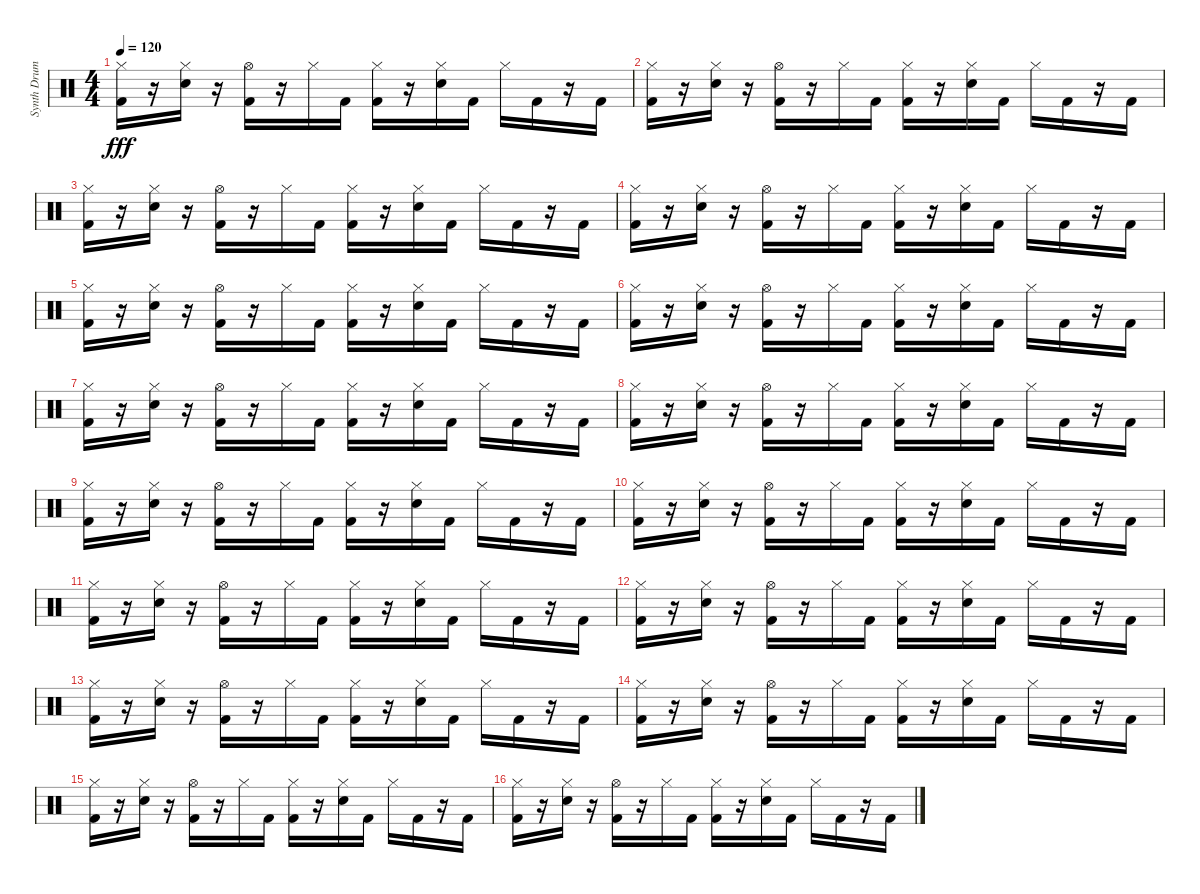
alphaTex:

\track ("Synth Drums" "Synth Drum") {instrument percussion}
\staff {score}
\articulation defaults
\ts (4 4)
\tempo 120
\clef neutral
\ks c
("Hi-Hat (closed)" "Kick (hit) 2").16{dy fff} r.16 ("Hi-Hat (closed)" "Snare (hit) 2").16 r.16 ("Hi-Hat (open)" "Kick (hit) 2").16 r.16 "Hi-Hat (closed)".16 "Kick (hit) 2".16 ("Hi-Hat (closed)" "Kick (hit) 2").16 r.16 ("Hi-Hat (closed)" "Snare (hit) 2").16 "Kick (hit) 2".16 "Hi-Hat (closed)".16 "Kick (hit) 2".16 r.16 "Kick (hit) 2".16 |
("Hi-Hat (closed)" "Kick (hit) 2").16 r.16 ("Hi-Hat (closed)" "Snare (hit) 2").16 r.16 ("Hi-Hat (open)" "Kick (hit) 2").16 r.16 "Hi-Hat (closed)".16 "Kick (hit) 2".16 ("Hi-Hat (closed)" "Kick (hit) 2").16 r.16 ("Hi-Hat (closed)" "Snare (hit) 2").16 "Kick (hit) 2".16 "Hi-Hat (closed)".16 "Kick (hit) 2".16 r.16 "Kick (hit) 2".16 |
("Hi-Hat (closed)" "Kick (hit) 2").16 r.16 ("Hi-Hat (closed)" "Snare (hit) 2").16 r.16 ("Hi-Hat (open)" "Kick (hit) 2").16 r.16 "Hi-Hat (closed)".16 "Kick (hit) 2".16 ("Hi-Hat (closed)" "Kick (hit) 2").16 r.16 ("Hi-Hat (closed)" "Snare (hit) 2").16 "Kick (hit) 2".16 "Hi-Hat (closed)".16 "Kick (hit) 2".16 r.16 "Kick (hit) 2".16 |
("Hi-Hat (closed)" "Kick (hit) 2").16 r.16 ("Hi-Hat (closed)" "Snare (hit) 2").16 r.16 ("Hi-Hat (open)" "Kick (hit) 2").16 r.16 "Hi-Hat (closed)".16 "Kick (hit) 2".16 ("Hi-Hat (closed)" "Kick (hit) 2").16 r.16 ("Hi-Hat (closed)" "Snare (hit) 2").16 "Kick (hit) 2".16 "Hi-Hat (closed)".16 "Kick (hit) 2".16 r.16 "Kick (hit) 2".16 |
("Hi-Hat (closed)" "Kick (hit) 2").16 r.16 ("Hi-Hat (closed)" "Snare (hit) 2").16 r.16 ("Hi-Hat (open)" "Kick (hit) 2").16 r.16 "Hi-Hat (closed)".16 "Kick (hit) 2".16 ("Hi-Hat (closed)" "Kick (hit) 2").16 r.16 ("Hi-Hat (closed)" "Snare (hit) 2").16 "Kick (hit) 2".16 "Hi-Hat (closed)".16 "Kick (hit) 2".16 r.16 "Kick (hit) 2".16 |
("Hi-Hat (closed)" "Kick (hit) 2").16 r.16 ("Hi-Hat (closed)" "Snare (hit) 2").16 r.16 ("Hi-Hat (open)" "Kick (hit) 2").16 r.16 "Hi-Hat (closed)".16 "Kick (hit) 2".16 ("Hi-Hat (closed)" "Kick (hit) 2").16 r.16 ("Hi-Hat (closed)" "Snare (hit) 2").16 "Kick (hit) 2".16 "Hi-Hat (closed)".16 "Kick (hit) 2".16 r.16 "Kick (hit) 2".16 |
("Hi-Hat (closed)" "Kick (hit) 2").16 r.16 ("Hi-Hat (closed)" "Snare (hit) 2").16 r.16 ("Hi-Hat (open)" "Kick (hit) 2").16 r.16 "Hi-Hat (closed)".16 "Kick (hit) 2".16 ("Hi-Hat (closed)" "Kick (hit) 2").16 r.16 ("Hi-Hat (closed)" "Snare (hit) 2").16 "Kick (hit) 2".16 "Hi-Hat (closed)".16 "Kick (hit) 2".16 r.16 "Kick (hit) 2".16 |
("Hi-Hat (closed)" "Kick (hit) 2").16 r.16 ("Hi-Hat (closed)" "Snare (hit) 2").16 r.16 ("Hi-Hat (open)" "Kick (hit) 2").16 r.16 "Hi-Hat (closed)".16 "Kick (hit) 2".16 ("Hi-Hat (closed)" "Kick (hit) 2").16 r.16 ("Hi-Hat (closed)" "Snare (hit) 2").16 "Kick (hit) 2".16 "Hi-Hat (closed)".16 "Kick (hit) 2".16 r.16 "Kick (hit) 2".16 |
("Hi-Hat (closed)" "Kick (hit) 2").16 r.16 ("Hi-Hat (closed)" "Snare (hit) 2").16 r.16 ("Hi-Hat (open)" "Kick (hit) 2").16 r.16 "Hi-Hat (closed)".16 "Kick (hit) 2".16 ("Hi-Hat (closed)" "Kick (hit) 2").16 r.16 ("Hi-Hat (closed)" "Snare (hit) 2").16 "Kick (hit) 2".16 "Hi-Hat (closed)".16 "Kick (hit) 2".16 r.16 "Kick (hit) 2".16 |
("Hi-Hat (closed)" "Kick (hit) 2").16 r.16 ("Hi-Hat (closed)" "Snare (hit) 2").16 r.16 ("Hi-Hat (open)" "Kick (hit) 2").16 r.16 "Hi-Hat (closed)".16 "Kick (hit) 2".16 ("Hi-Hat (closed)" "Kick (hit) 2").16 r.16 ("Hi-Hat (closed)" "Snare (hit) 2").16 "Kick (hit) 2".16 "Hi-Hat (closed)".16 "Kick (hit) 2".16 r.16 "Kick (hit) 2".16 |
("Hi-Hat (closed)" "Kick (hit) 2").16 r.16 ("Hi-Hat (closed)" "Snare (hit) 2").16 r.16 ("Hi-Hat (open)" "Kick (hit) 2").16 r.16 "Hi-Hat (closed)".16 "Kick (hit) 2".16 ("Hi-Hat (closed)" "Kick (hit) 2").16 r.16 ("Hi-Hat (closed)" "Snare (hit) 2").16 "Kick (hit) 2".16 "Hi-Hat (closed)".16 "Kick (hit) 2".16 r.16 "Kick (hit) 2".16 |
("Hi-Hat (closed)" "Kick (hit) 2").16 r.16 ("Hi-Hat (closed)" "Snare (hit) 2").16 r.16 ("Hi-Hat (open)" "Kick (hit) 2").16 r.16 "Hi-Hat (closed)".16 "Kick (hit) 2".16 ("Hi-Hat (closed)" "Kick (hit) 2").16 r.16 ("Hi-Hat (closed)" "Snare (hit) 2").16 "Kick (hit) 2".16 "Hi-Hat (closed)".16 "Kick (hit) 2".16 r.16 "Kick (hit) 2".16 |
("Hi-Hat (closed)" "Kick (hit) 2").16 r.16 ("Hi-Hat (closed)" "Snare (hit) 2").16 r.16 ("Hi-Hat (open)" "Kick (hit) 2").16 r.16 "Hi-Hat (closed)".16 "Kick (hit) 2".16 ("Hi-Hat (closed)" "Kick (hit) 2").16 r.16 ("Hi-Hat (closed)" "Snare (hit) 2").16 "Kick (hit) 2".16 "Hi-Hat (closed)".16 "Kick (hit) 2".16 r.16 "Kick (hit) 2".16 |
("Hi-Hat (closed)" "Kick (hit) 2").16 r.16 ("Hi-Hat (closed)" "Snare (hit) 2").16 r.16 ("Hi-Hat (open)" "Kick (hit) 2").16 r.16 "Hi-Hat (closed)".16 "Kick (hit) 2".16 ("Hi-Hat (closed)" "Kick (hit) 2").16 r.16 ("Hi-Hat (closed)" "Snare (hit) 2").16 "Kick (hit) 2".16 "Hi-Hat (closed)".16 "Kick (hit) 2".16 r.16 "Kick (hit) 2".16 |
("Hi-Hat (closed)" "Kick (hit) 2").16 r.16 ("Hi-Hat (closed)" "Snare (hit) 2").16 r.16 ("Hi-Hat (open)" "Kick (hit) 2").16 r.16 "Hi-Hat (closed)".16 "Kick (hit) 2".16 ("Hi-Hat (closed)" "Kick (hit) 2").16 r.16 ("Hi-Hat (closed)" "Snare (hit) 2").16 "Kick (hit) 2".16 "Hi-Hat (closed)".16 "Kick (hit) 2".16 r.16 "Kick (hit) 2".16 |
("Hi-Hat (closed)" "Kick (hit) 2").16 r.16 ("Hi-Hat (closed)" "Snare (hit) 2").16 r.16 ("Hi-Hat (open)" "Kick (hit) 2").16 r.16 "Hi-Hat (closed)".16 "Kick (hit) 2".16 ("Hi-Hat (closed)" "Kick (hit) 2").16 r.16 ("Hi-Hat (closed)" "Snare (hit) 2").16 "Kick (hit) 2".16 "Hi-Hat (closed)".16 "Kick (hit) 2".16 r.16 "Kick (hit) 2".16
